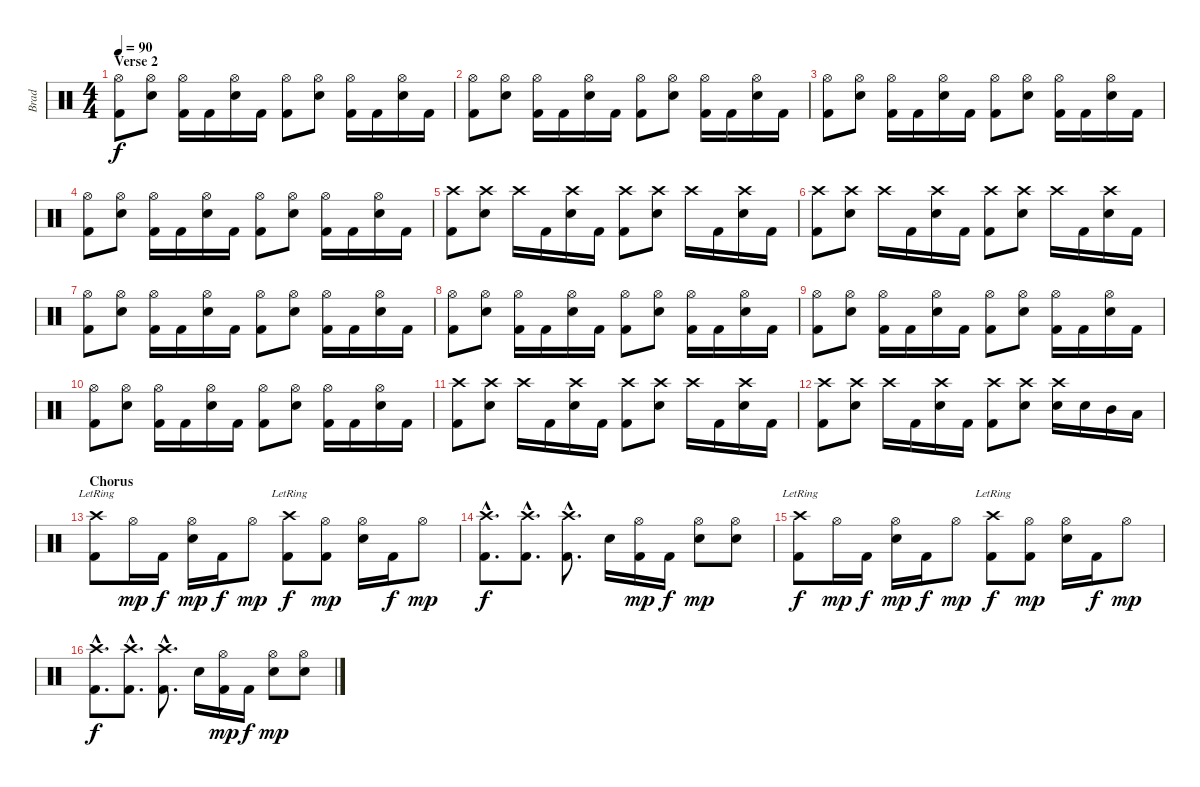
\track ("Brad" "Brad") {instrument percussion}
\staff {score}
\articulation defaults
\ts (4 4)
\section ("" "Verse 2")
\tempo 90
\clef neutral
\ks c
("Hi-Hat (open)" "Kick (hit) 2").8{dy f} ("Hi-Hat (open)" "Electric Snare (hit)").8 ("Hi-Hat (open)" "Kick (hit) 2").16 "Kick (hit) 2".16 ("Hi-Hat (open)" "Electric Snare (hit)").16 "Kick (hit) 2".16 ("Hi-Hat (open)" "Kick (hit) 2").8 ("Hi-Hat (open)" "Electric Snare (hit)").8 ("Hi-Hat (open)" "Kick (hit) 2").16 "Kick (hit) 2".16 ("Hi-Hat (open)" "Electric Snare (hit)").16 "Kick (hit) 2".16 |
("Hi-Hat (open)" "Kick (hit) 2").8 ("Hi-Hat (open)" "Electric Snare (hit)").8 ("Hi-Hat (open)" "Kick (hit) 2").16 "Kick (hit) 2".16 ("Hi-Hat (open)" "Electric Snare (hit)").16 "Kick (hit) 2".16 ("Hi-Hat (open)" "Kick (hit) 2").8 ("Hi-Hat (open)" "Electric Snare (hit)").8 ("Hi-Hat (open)" "Kick (hit) 2").16 "Kick (hit) 2".16 ("Hi-Hat (open)" "Electric Snare (hit)").16 "Kick (hit) 2".16 |
("Hi-Hat (open)" "Kick (hit) 2").8 ("Hi-Hat (open)" "Electric Snare (hit)").8 ("Hi-Hat (open)" "Kick (hit) 2").16 "Kick (hit) 2".16 ("Hi-Hat (open)" "Electric Snare (hit)").16 "Kick (hit) 2".16 ("Hi-Hat (open)" "Kick (hit) 2").8 ("Hi-Hat (open)" "Electric Snare (hit)").8 ("Hi-Hat (open)" "Kick (hit) 2").16 "Kick (hit) 2".16 ("Hi-Hat (open)" "Electric Snare (hit)").16 "Kick (hit) 2".16 |
("Hi-Hat (open)" "Kick (hit) 2").8 ("Hi-Hat (open)" "Electric Snare (hit)").8 ("Hi-Hat (open)" "Kick (hit) 2").16 "Kick (hit) 2".16 ("Hi-Hat (open)" "Electric Snare (hit)").16 "Kick (hit) 2".16 ("Hi-Hat (open)" "Kick (hit) 2").8 ("Hi-Hat (open)" "Electric Snare (hit)").8 ("Hi-Hat (open)" "Kick (hit) 2").16 "Kick (hit) 2".16 ("Hi-Hat (open)" "Electric Snare (hit)").16 "Kick (hit) 2".16 |
("Crash high (hit)" "Kick (hit) 2").8 ("Crash high (hit)" "Electric Snare (hit)").8 "Crash high (hit)".16 "Kick (hit) 2".16 ("Crash high (hit)" "Electric Snare (hit)").16 "Kick (hit) 2".16 ("Crash high (hit)" "Kick (hit) 2").8 ("Crash high (hit)" "Electric Snare (hit)").8 "Crash high (hit)".16 "Kick (hit) 2".16 ("Crash high (hit)" "Electric Snare (hit)").16 "Kick (hit) 2".16 |
("Crash high (hit)" "Kick (hit) 2").8 ("Crash high (hit)" "Electric Snare (hit)").8 "Crash high (hit)".16 "Kick (hit) 2".16 ("Crash high (hit)" "Electric Snare (hit)").16 "Kick (hit) 2".16 ("Crash high (hit)" "Kick (hit) 2").8 ("Crash high (hit)" "Electric Snare (hit)").8 "Crash high (hit)".16 "Kick (hit) 2".16 ("Crash high (hit)" "Electric Snare (hit)").16 "Kick (hit) 2".16 |
("Hi-Hat (open)" "Kick (hit) 2").8 ("Hi-Hat (open)" "Electric Snare (hit)").8 ("Hi-Hat (open)" "Kick (hit) 2").16 "Kick (hit) 2".16 ("Hi-Hat (open)" "Electric Snare (hit)").16 "Kick (hit) 2".16 ("Hi-Hat (open)" "Kick (hit) 2").8 ("Hi-Hat (open)" "Electric Snare (hit)").8 ("Hi-Hat (open)" "Kick (hit) 2").16 "Kick (hit) 2".16 ("Hi-Hat (open)" "Electric Snare (hit)").16 "Kick (hit) 2".16 |
("Hi-Hat (open)" "Kick (hit) 2").8 ("Hi-Hat (open)" "Electric Snare (hit)").8 ("Hi-Hat (open)" "Kick (hit) 2").16 "Kick (hit) 2".16 ("Hi-Hat (open)" "Electric Snare (hit)").16 "Kick (hit) 2".16 ("Hi-Hat (open)" "Kick (hit) 2").8 ("Hi-Hat (open)" "Electric Snare (hit)").8 ("Hi-Hat (open)" "Kick (hit) 2").16 "Kick (hit) 2".16 ("Hi-Hat (open)" "Electric Snare (hit)").16 "Kick (hit) 2".16 |
("Hi-Hat (open)" "Kick (hit) 2").8 ("Hi-Hat (open)" "Electric Snare (hit)").8 ("Hi-Hat (open)" "Kick (hit) 2").16 "Kick (hit) 2".16 ("Hi-Hat (open)" "Electric Snare (hit)").16 "Kick (hit) 2".16 ("Hi-Hat (open)" "Kick (hit) 2").8 ("Hi-Hat (open)" "Electric Snare (hit)").8 ("Hi-Hat (open)" "Kick (hit) 2").16 "Kick (hit) 2".16 ("Hi-Hat (open)" "Electric Snare (hit)").16 "Kick (hit) 2".16 |
("Hi-Hat (open)" "Kick (hit) 2").8 ("Hi-Hat (open)" "Electric Snare (hit)").8 ("Hi-Hat (open)" "Kick (hit) 2").16 "Kick (hit) 2".16 ("Hi-Hat (open)" "Electric Snare (hit)").16 "Kick (hit) 2".16 ("Hi-Hat (open)" "Kick (hit) 2").8 ("Hi-Hat (open)" "Electric Snare (hit)").8 ("Hi-Hat (open)" "Kick (hit) 2").16 "Kick (hit) 2".16 ("Hi-Hat (open)" "Electric Snare (hit)").16 "Kick (hit) 2".16 |
("Crash high (hit)" "Kick (hit) 2").8 ("Crash high (hit)" "Electric Snare (hit)").8 "Crash high (hit)".16 "Kick (hit) 2".16 ("Crash high (hit)" "Electric Snare (hit)").16 "Kick (hit) 2".16 ("Crash high (hit)" "Kick (hit) 2").8 ("Crash high (hit)" "Electric Snare (hit)").8 "Crash high (hit)".16 "Kick (hit) 2".16 ("Crash high (hit)" "Electric Snare (hit)").16 "Kick (hit) 2".16 |
("Crash high (hit)" "Kick (hit) 2").8 ("Crash high (hit)" "Electric Snare (hit)").8 "Crash high (hit)".16 "Kick (hit) 2".16 ("Crash high (hit)" "Electric Snare (hit)").16 "Kick (hit) 2".16 ("Crash high (hit)" "Kick (hit) 2").8 ("Crash high (hit)" "Electric Snare (hit)").8 ("Crash high (hit)" "Electric Snare (hit)").16 "Electric Snare (hit)".16 "Mid Tom (hit)".16 "Low Tom (hit)".16 |
\section ("" "Chorus")
("Crash high (hit)"{lr} "Kick (hit) 2").8 "Hi-Hat (open)".16{dy mp} "Kick (hit) 2".16{dy f} ("Hi-Hat (open)" "Electric Snare (hit)").16{dy mp} "Kick (hit) 2".16{dy f} "Hi-Hat (open)".8{dy mp} ("Crash high (hit)"{lr} "Kick (hit) 2").8{dy f} ("Hi-Hat (open)" "Kick (hit) 2").8{dy mp} ("Hi-Hat (open)" "Electric Snare (hit)").16 "Kick (hit) 2".16{dy f} "Hi-Hat (open)".8{dy mp} |
("Crash high (hit)"{hac} "Kick (hit) 2"{hac}).8{d dy f} ("Crash high (hit)"{hac} "Kick (hit) 2"{hac}).8{d} ("Crash high (hit)"{hac} "Kick (hit) 2"{hac}).8{d} "Electric Snare (hit)".16 ("Hi-Hat (open)" "Kick (hit) 2").16{dy mp} "Kick (hit) 2".16{dy f} ("Hi-Hat (open)" "Electric Snare (hit)").8{dy mp} ("Hi-Hat (open)" "Electric Snare (hit)").8 |
("Crash high (hit)"{lr} "Kick (hit) 2").8{dy f} "Hi-Hat (open)".16{dy mp} "Kick (hit) 2".16{dy f} ("Hi-Hat (open)" "Electric Snare (hit)").16{dy mp} "Kick (hit) 2".16{dy f} "Hi-Hat (open)".8{dy mp} ("Crash high (hit)"{lr} "Kick (hit) 2").8{dy f} ("Hi-Hat (open)" "Kick (hit) 2").8{dy mp} ("Hi-Hat (open)" "Electric Snare (hit)").16 "Kick (hit) 2".16{dy f} "Hi-Hat (open)".8{dy mp} |
("Crash high (hit)"{hac} "Kick (hit) 2"{hac}).8{d dy f} ("Crash high (hit)"{hac} "Kick (hit) 2"{hac}).8{d} ("Crash high (hit)"{hac} "Kick (hit) 2"{hac}).8{d} "Electric Snare (hit)".16 ("Hi-Hat (open)" "Kick (hit) 2").16{dy mp} "Kick (hit) 2".16{dy f} ("Hi-Hat (open)" "Electric Snare (hit)").8{dy mp} ("Hi-Hat (open)" "Electric Snare (hit)").8
